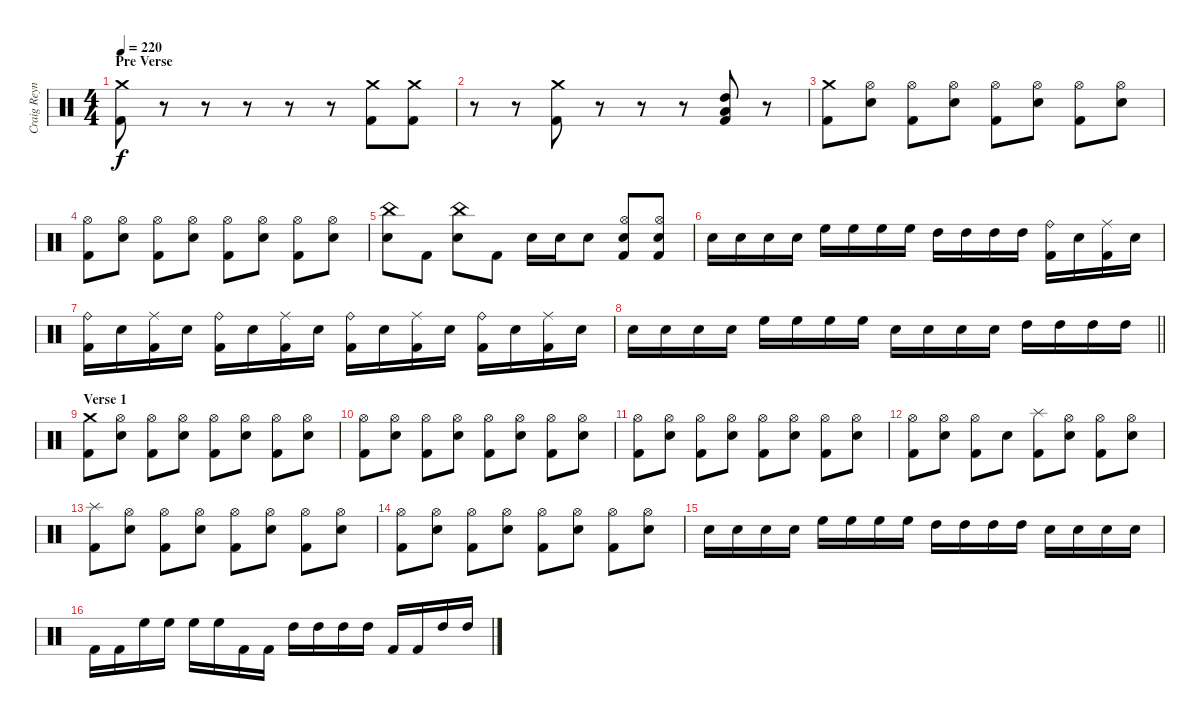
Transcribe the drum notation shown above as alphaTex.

\track ("Craig Reynolds" "Craig Reyn") {instrument percussion}
\staff {score}
\articulation defaults
\ts (4 4)
\section ("" "Pre Verse")
\tempo 220
\clef neutral
\ks c
("Crash medium (hit)" "Kick (hit) 2").8{dy f} r.8{volume 0} r.8 r.8 r.8 r.8 ("Crash medium (hit)" "Kick (hit) 2").8{volume 12} ("Crash medium (hit)" "Kick (hit) 2").8 |
r.8{volume 0} r.8 ("Crash medium (hit)" "Kick (hit) 2").8{volume 13} r.8{volume 0} r.8 r.8 ("High Tom (hit)" "Low Tom (hit)" "Kick (hit) 2").8{volume 13} r.8 |
("Crash medium (hit)" "Kick (hit) 2").8 ("Hi-Hat (open)" "Electric Snare (hit)").8 ("Hi-Hat (open)" "Kick (hit) 2").8 ("Hi-Hat (open)" "Electric Snare (hit)").8 ("Hi-Hat (open)" "Kick (hit) 2").8 ("Hi-Hat (open)" "Electric Snare (hit)").8 ("Hi-Hat (open)" "Kick (hit) 2").8 ("Hi-Hat (open)" "Electric Snare (hit)").8 |
("Hi-Hat (open)" "Kick (hit) 2").8 ("Hi-Hat (open)" "Electric Snare (hit)").8 ("Hi-Hat (open)" "Kick (hit) 2").8 ("Hi-Hat (open)" "Electric Snare (hit)").8 ("Hi-Hat (open)" "Kick (hit) 2").8 ("Hi-Hat (open)" "Electric Snare (hit)").8 ("Hi-Hat (open)" "Kick (hit) 2").8 ("Hi-Hat (open)" "Electric Snare (hit)").8 |
("China (hit)" "Electric Snare (hit)").8 "Kick (hit) 2".8 ("China (hit)" "Electric Snare (hit)").8 "Kick (hit) 2".8 "Electric Snare (hit)".16 "Electric Snare (hit)".16 "Electric Snare (hit)".8 ("Hi-Hat (open)" "Electric Snare (hit)" "Kick (hit) 2").8 ("Hi-Hat (open)" "Electric Snare (hit)" "Kick (hit) 2").8 |
"Electric Snare (hit)".16 "Electric Snare (hit)".16 "Electric Snare (hit)".16 "Electric Snare (hit)".16 "High Floor Tom (hit)".16 "High Floor Tom (hit)".16 "High Floor Tom (hit)".16 "High Floor Tom (hit)".16 "High Tom (hit)".16 "High Tom (hit)".16 "High Tom (hit)".16 "High Tom (hit)".16 ("Ride (bell)" "Kick (hit) 2").16 "Electric Snare (hit)".16 ("Ride (middle)" "Kick (hit) 2").16 "Electric Snare (hit)".16 |
("Ride (bell)" "Kick (hit) 2").16 "Electric Snare (hit)".16 ("Ride (middle)" "Kick (hit) 2").16 "Electric Snare (hit)".16 ("Ride (bell)" "Kick (hit) 2").16 "Electric Snare (hit)".16 ("Ride (middle)" "Kick (hit) 2").16 "Electric Snare (hit)".16 ("Ride (bell)" "Kick (hit) 2").16 "Electric Snare (hit)".16 ("Ride (middle)" "Kick (hit) 2").16 "Electric Snare (hit)".16 ("Ride (bell)" "Kick (hit) 2").16 "Electric Snare (hit)".16 ("Ride (middle)" "Kick (hit) 2").16 "Electric Snare (hit)".16 |
\barLineRight lightlight "Electric Snare (hit)".16 "Electric Snare (hit)".16 "Electric Snare (hit)".16 "Electric Snare (hit)".16 "High Floor Tom (hit)".16 "High Floor Tom (hit)".16 "High Floor Tom (hit)".16 "High Floor Tom (hit)".16 "Electric Snare (hit)".16 "Electric Snare (hit)".16 "Electric Snare (hit)".16 "Electric Snare (hit)".16 "High Tom (hit)".16 "High Tom (hit)".16 "High Tom (hit)".16 "High Tom (hit)".16
|
\section ("" "Verse 1")
("Crash medium (hit)" "Kick (hit) 2").8 ("Hi-Hat (open)" "Electric Snare (hit)").8 ("Hi-Hat (open)" "Kick (hit) 2").8 ("Hi-Hat (open)" "Electric Snare (hit)").8 ("Hi-Hat (open)" "Kick (hit) 2").8 ("Hi-Hat (open)" "Electric Snare (hit)").8 ("Hi-Hat (open)" "Kick (hit) 2").8 ("Hi-Hat (open)" "Electric Snare (hit)").8 |
("Hi-Hat (open)" "Kick (hit) 2").8 ("Hi-Hat (open)" "Electric Snare (hit)").8 ("Hi-Hat (open)" "Kick (hit) 2").8 ("Hi-Hat (open)" "Electric Snare (hit)").8 ("Hi-Hat (open)" "Kick (hit) 2").8 ("Hi-Hat (open)" "Electric Snare (hit)").8 ("Hi-Hat (open)" "Kick (hit) 2").8 ("Hi-Hat (open)" "Electric Snare (hit)").8 |
("Hi-Hat (open)" "Kick (hit) 2").8 ("Hi-Hat (open)" "Electric Snare (hit)").8 ("Hi-Hat (open)" "Kick (hit) 2").8 ("Hi-Hat (open)" "Electric Snare (hit)").8 ("Hi-Hat (open)" "Kick (hit) 2").8 ("Hi-Hat (open)" "Electric Snare (hit)").8 ("Hi-Hat (open)" "Kick (hit) 2").8 ("Hi-Hat (open)" "Electric Snare (hit)").8 |
("Hi-Hat (open)" "Kick (hit) 2").8 ("Hi-Hat (open)" "Electric Snare (hit)").8 ("Hi-Hat (open)" "Kick (hit) 2").8 "Electric Snare (hit)".8 ("Splash (hit)" "Kick (hit) 2").8 ("Hi-Hat (open)" "Electric Snare (hit)").8 ("Hi-Hat (open)" "Kick (hit) 2").8 ("Hi-Hat (open)" "Electric Snare (hit)").8 |
("Splash (hit)" "Kick (hit) 2").8 ("Hi-Hat (open)" "Electric Snare (hit)").8 ("Hi-Hat (open)" "Kick (hit) 2").8 ("Hi-Hat (open)" "Electric Snare (hit)").8 ("Hi-Hat (open)" "Kick (hit) 2").8 ("Hi-Hat (open)" "Electric Snare (hit)").8 ("Hi-Hat (open)" "Kick (hit) 2").8 ("Hi-Hat (open)" "Electric Snare (hit)").8 |
("Hi-Hat (open)" "Kick (hit) 2").8 ("Hi-Hat (open)" "Electric Snare (hit)").8 ("Hi-Hat (open)" "Kick (hit) 2").8 ("Hi-Hat (open)" "Electric Snare (hit)").8 ("Hi-Hat (open)" "Kick (hit) 2").8 ("Hi-Hat (open)" "Electric Snare (hit)").8 ("Hi-Hat (open)" "Kick (hit) 2").8 ("Hi-Hat (open)" "Electric Snare (hit)").8 |
"Electric Snare (hit)".16 "Electric Snare (hit)".16 "Electric Snare (hit)".16 "Electric Snare (hit)".16 "High Floor Tom (hit)".16 "High Floor Tom (hit)".16 "High Floor Tom (hit)".16 "High Floor Tom (hit)".16 "High Tom (hit)".16 "High Tom (hit)".16 "High Tom (hit)".16 "High Tom (hit)".16 "Electric Snare (hit)".16 "Electric Snare (hit)".16 "Electric Snare (hit)".16 "Electric Snare (hit)".16 |
"Kick (hit) 2".16 "Kick (hit) 2".16 "High Floor Tom (hit)".16 "High Floor Tom (hit)".16 "High Floor Tom (hit)".16 "High Floor Tom (hit)".16 "Kick (hit) 2".16 "Kick (hit) 2".16 "High Tom (hit)".16 "High Tom (hit)".16 "High Tom (hit)".16 "High Tom (hit)".16 "Kick (hit) 2".16 "Kick (hit) 2".16 "High Tom (hit)".16 "High Tom (hit)".16
